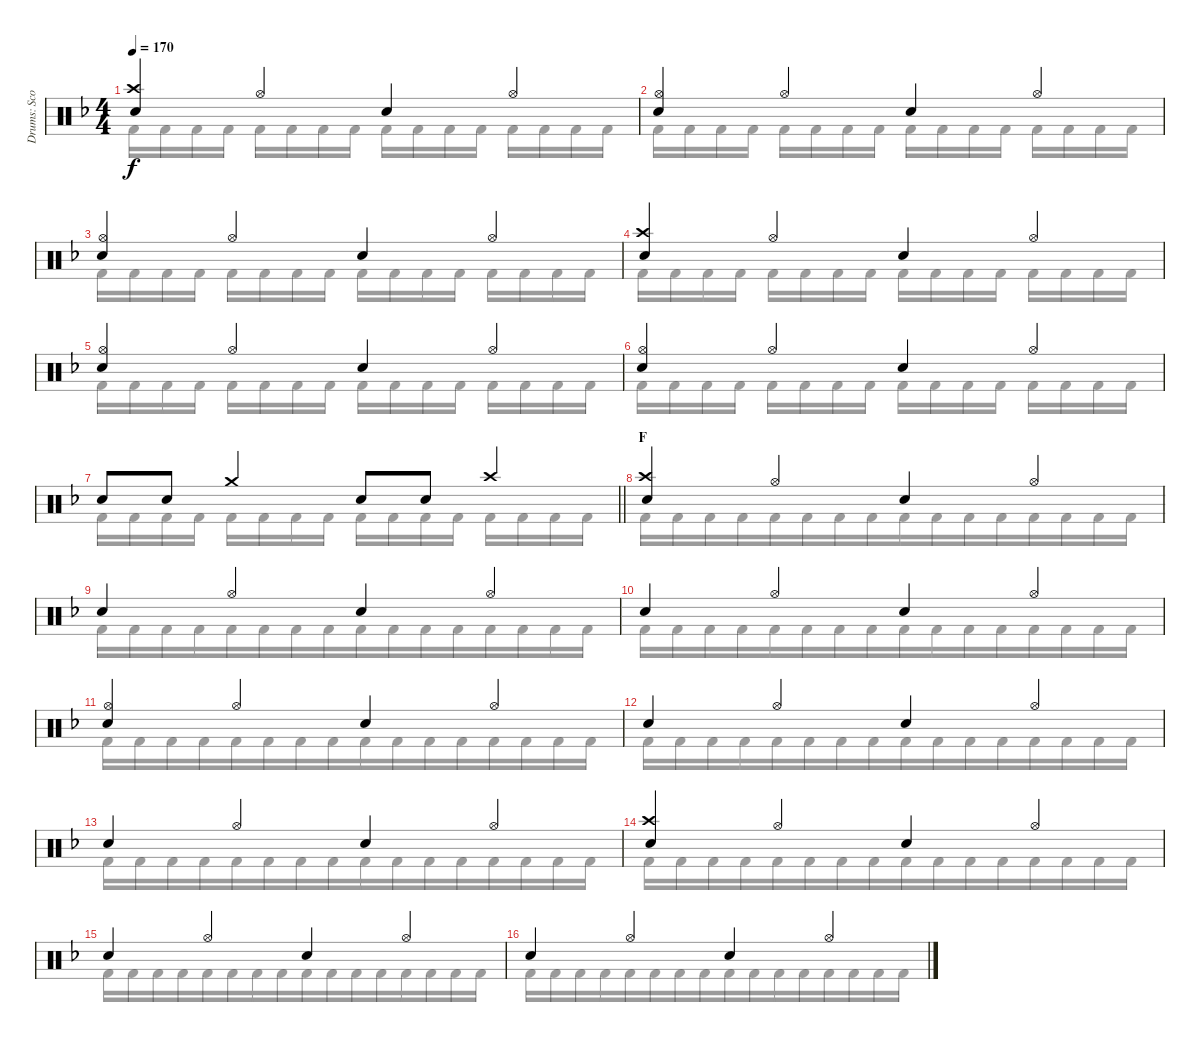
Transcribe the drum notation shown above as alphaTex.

\track ("Drums: Scott" "Drums: Sco") {instrument percussion}
\staff {score}
\articulation defaults
\voice
\ts (4 4)
\tempo 170
\clef neutral
\ks f
("Crash high (hit)" "Snare (hit) 2").4{dy f} "Hi-Hat (open)".4 "Snare (hit) 2".4 "Hi-Hat (open)".4 |
("Hi-Hat (open)" "Snare (hit) 2").4 "Hi-Hat (open)".4 "Snare (hit) 2".4 "Hi-Hat (open)".4 |
("Hi-Hat (open)" "Snare (hit) 2").4 "Hi-Hat (open)".4 "Snare (hit) 2".4 "Hi-Hat (open)".4 |
("Crash high (hit)" "Snare (hit) 2").4 "Hi-Hat (open)".4 "Snare (hit) 2".4 "Hi-Hat (open)".4 |
("Hi-Hat (open)" "Snare (hit) 2").4 "Hi-Hat (open)".4 "Snare (hit) 2".4 "Hi-Hat (open)".4 |
("Hi-Hat (open)" "Snare (hit) 2").4 "Hi-Hat (open)".4 "Snare (hit) 2".4 "Hi-Hat (open)".4 |
\barLineRight lightlight "Snare (hit) 2".8 "Snare (hit) 2".8 "Crash medium (hit)".4 "Snare (hit) 2".8 "Snare (hit) 2".8 "Crash high (hit)".4
|
\section ("" "F")
("Crash high (hit)" "Snare (hit) 2").4 "Hi-Hat (open)".4 "Snare (hit) 2".4 "Hi-Hat (open)".4 |
"Snare (hit) 2".4 "Hi-Hat (open)".4 "Snare (hit) 2".4 "Hi-Hat (open)".4 |
"Snare (hit) 2".4 "Hi-Hat (open)".4 "Snare (hit) 2".4 "Hi-Hat (open)".4 |
("Hi-Hat (open)" "Snare (hit) 2").4 "Hi-Hat (open)".4 "Snare (hit) 2".4 "Hi-Hat (open)".4 |
"Snare (hit) 2".4 "Hi-Hat (open)".4 "Snare (hit) 2".4 "Hi-Hat (open)".4 |
"Snare (hit) 2".4 "Hi-Hat (open)".4 "Snare (hit) 2".4 "Hi-Hat (open)".4 |
("Crash high (hit)" "Snare (hit) 2").4 "Hi-Hat (open)".4 "Snare (hit) 2".4 "Hi-Hat (open)".4 |
"Snare (hit) 2".4 "Hi-Hat (open)".4 "Snare (hit) 2".4 "Hi-Hat (open)".4 |
"Snare (hit) 2".4 "Hi-Hat (open)".4 "Snare (hit) 2".4 "Hi-Hat (open)".4
\voice
\clef neutral
\ottava regular
\simile none
\ks f "Kick (hit) 2".16{dy f} "Kick (hit) 2".16{beam merge} "Kick (hit) 2".16 "Kick (hit) 2".16 "Kick (hit) 2".16 "Kick (hit) 2".16{beam merge} "Kick (hit) 2".16 "Kick (hit) 2".16 "Kick (hit) 2".16 "Kick (hit) 2".16{beam merge} "Kick (hit) 2".16 "Kick (hit) 2".16 "Kick (hit) 2".16 "Kick (hit) 2".16{beam merge} "Kick (hit) 2".16 "Kick (hit) 2".16
|
"Kick (hit) 2".16 "Kick (hit) 2".16{beam merge} "Kick (hit) 2".16 "Kick (hit) 2".16 "Kick (hit) 2".16 "Kick (hit) 2".16{beam merge} "Kick (hit) 2".16 "Kick (hit) 2".16 "Kick (hit) 2".16 "Kick (hit) 2".16{beam merge} "Kick (hit) 2".16 "Kick (hit) 2".16 "Kick (hit) 2".16 "Kick (hit) 2".16{beam merge} "Kick (hit) 2".16 "Kick (hit) 2".16 |
"Kick (hit) 2".16 "Kick (hit) 2".16{beam merge} "Kick (hit) 2".16 "Kick (hit) 2".16 "Kick (hit) 2".16 "Kick (hit) 2".16{beam merge} "Kick (hit) 2".16 "Kick (hit) 2".16 "Kick (hit) 2".16 "Kick (hit) 2".16{beam merge} "Kick (hit) 2".16 "Kick (hit) 2".16 "Kick (hit) 2".16 "Kick (hit) 2".16{beam merge} "Kick (hit) 2".16 "Kick (hit) 2".16 |
"Kick (hit) 2".16 "Kick (hit) 2".16{beam merge} "Kick (hit) 2".16 "Kick (hit) 2".16 "Kick (hit) 2".16 "Kick (hit) 2".16{beam merge} "Kick (hit) 2".16 "Kick (hit) 2".16 "Kick (hit) 2".16 "Kick (hit) 2".16{beam merge} "Kick (hit) 2".16 "Kick (hit) 2".16 "Kick (hit) 2".16 "Kick (hit) 2".16{beam merge} "Kick (hit) 2".16 "Kick (hit) 2".16 |
"Kick (hit) 2".16 "Kick (hit) 2".16{beam merge} "Kick (hit) 2".16 "Kick (hit) 2".16 "Kick (hit) 2".16 "Kick (hit) 2".16{beam merge} "Kick (hit) 2".16 "Kick (hit) 2".16 "Kick (hit) 2".16 "Kick (hit) 2".16{beam merge} "Kick (hit) 2".16 "Kick (hit) 2".16 "Kick (hit) 2".16 "Kick (hit) 2".16{beam merge} "Kick (hit) 2".16 "Kick (hit) 2".16 |
"Kick (hit) 2".16 "Kick (hit) 2".16{beam merge} "Kick (hit) 2".16 "Kick (hit) 2".16 "Kick (hit) 2".16 "Kick (hit) 2".16{beam merge} "Kick (hit) 2".16 "Kick (hit) 2".16 "Kick (hit) 2".16 "Kick (hit) 2".16{beam merge} "Kick (hit) 2".16 "Kick (hit) 2".16 "Kick (hit) 2".16 "Kick (hit) 2".16{beam merge} "Kick (hit) 2".16 "Kick (hit) 2".16 |
\barLineRight lightlight "Kick (hit) 2".16 "Kick (hit) 2".16{beam merge} "Kick (hit) 2".16 "Kick (hit) 2".16 "Kick (hit) 2".16 "Kick (hit) 2".16{beam merge} "Kick (hit) 2".16 "Kick (hit) 2".16 "Kick (hit) 2".16 "Kick (hit) 2".16{beam merge} "Kick (hit) 2".16 "Kick (hit) 2".16 "Kick (hit) 2".16 "Kick (hit) 2".16{beam merge} "Kick (hit) 2".16 "Kick (hit) 2".16
|
"Kick (hit) 2".16{beam merge} "Kick (hit) 2".16{beam merge} "Kick (hit) 2".16{beam merge} "Kick (hit) 2".16{beam merge} "Kick (hit) 2".16{beam merge} "Kick (hit) 2".16{beam merge} "Kick (hit) 2".16{beam merge} "Kick (hit) 2".16{beam merge} "Kick (hit) 2".16{beam merge} "Kick (hit) 2".16{beam merge} "Kick (hit) 2".16{beam merge} "Kick (hit) 2".16{beam merge} "Kick (hit) 2".16{beam merge} "Kick (hit) 2".16{beam merge} "Kick (hit) 2".16{beam merge} "Kick (hit) 2".16 |
"Kick (hit) 2".16{beam merge} "Kick (hit) 2".16{beam merge} "Kick (hit) 2".16{beam merge} "Kick (hit) 2".16{beam merge} "Kick (hit) 2".16{beam merge} "Kick (hit) 2".16{beam merge} "Kick (hit) 2".16{beam merge} "Kick (hit) 2".16{beam merge} "Kick (hit) 2".16{beam merge} "Kick (hit) 2".16{beam merge} "Kick (hit) 2".16{beam merge} "Kick (hit) 2".16{beam merge} "Kick (hit) 2".16{beam merge} "Kick (hit) 2".16{beam merge} "Kick (hit) 2".16{beam merge} "Kick (hit) 2".16 |
"Kick (hit) 2".16{beam merge} "Kick (hit) 2".16{beam merge} "Kick (hit) 2".16{beam merge} "Kick (hit) 2".16{beam merge} "Kick (hit) 2".16{beam merge} "Kick (hit) 2".16{beam merge} "Kick (hit) 2".16{beam merge} "Kick (hit) 2".16{beam merge} "Kick (hit) 2".16{beam merge} "Kick (hit) 2".16{beam merge} "Kick (hit) 2".16{beam merge} "Kick (hit) 2".16{beam merge} "Kick (hit) 2".16{beam merge} "Kick (hit) 2".16{beam merge} "Kick (hit) 2".16{beam merge} "Kick (hit) 2".16 |
"Kick (hit) 2".16{beam merge} "Kick (hit) 2".16{beam merge} "Kick (hit) 2".16{beam merge} "Kick (hit) 2".16{beam merge} "Kick (hit) 2".16{beam merge} "Kick (hit) 2".16{beam merge} "Kick (hit) 2".16{beam merge} "Kick (hit) 2".16{beam merge} "Kick (hit) 2".16{beam merge} "Kick (hit) 2".16{beam merge} "Kick (hit) 2".16{beam merge} "Kick (hit) 2".16{beam merge} "Kick (hit) 2".16{beam merge} "Kick (hit) 2".16{beam merge} "Kick (hit) 2".16{beam merge} "Kick (hit) 2".16 |
"Kick (hit) 2".16{beam merge} "Kick (hit) 2".16{beam merge} "Kick (hit) 2".16{beam merge} "Kick (hit) 2".16{beam merge} "Kick (hit) 2".16{beam merge} "Kick (hit) 2".16{beam merge} "Kick (hit) 2".16{beam merge} "Kick (hit) 2".16{beam merge} "Kick (hit) 2".16{beam merge} "Kick (hit) 2".16{beam merge} "Kick (hit) 2".16{beam merge} "Kick (hit) 2".16{beam merge} "Kick (hit) 2".16{beam merge} "Kick (hit) 2".16{beam merge} "Kick (hit) 2".16{beam merge} "Kick (hit) 2".16 |
"Kick (hit) 2".16{beam merge} "Kick (hit) 2".16{beam merge} "Kick (hit) 2".16{beam merge} "Kick (hit) 2".16{beam merge} "Kick (hit) 2".16{beam merge} "Kick (hit) 2".16{beam merge} "Kick (hit) 2".16{beam merge} "Kick (hit) 2".16{beam merge} "Kick (hit) 2".16{beam merge} "Kick (hit) 2".16{beam merge} "Kick (hit) 2".16{beam merge} "Kick (hit) 2".16{beam merge} "Kick (hit) 2".16{beam merge} "Kick (hit) 2".16{beam merge} "Kick (hit) 2".16{beam merge} "Kick (hit) 2".16 |
"Kick (hit) 2".16{beam merge} "Kick (hit) 2".16{beam merge} "Kick (hit) 2".16{beam merge} "Kick (hit) 2".16{beam merge} "Kick (hit) 2".16{beam merge} "Kick (hit) 2".16{beam merge} "Kick (hit) 2".16{beam merge} "Kick (hit) 2".16{beam merge} "Kick (hit) 2".16{beam merge} "Kick (hit) 2".16{beam merge} "Kick (hit) 2".16{beam merge} "Kick (hit) 2".16{beam merge} "Kick (hit) 2".16{beam merge} "Kick (hit) 2".16{beam merge} "Kick (hit) 2".16{beam merge} "Kick (hit) 2".16 |
"Kick (hit) 2".16{beam merge} "Kick (hit) 2".16{beam merge} "Kick (hit) 2".16{beam merge} "Kick (hit) 2".16{beam merge} "Kick (hit) 2".16{beam merge} "Kick (hit) 2".16{beam merge} "Kick (hit) 2".16{beam merge} "Kick (hit) 2".16{beam merge} "Kick (hit) 2".16{beam merge} "Kick (hit) 2".16{beam merge} "Kick (hit) 2".16{beam merge} "Kick (hit) 2".16{beam merge} "Kick (hit) 2".16{beam merge} "Kick (hit) 2".16{beam merge} "Kick (hit) 2".16{beam merge} "Kick (hit) 2".16 |
"Kick (hit) 2".16{beam merge} "Kick (hit) 2".16{beam merge} "Kick (hit) 2".16{beam merge} "Kick (hit) 2".16{beam merge} "Kick (hit) 2".16{beam merge} "Kick (hit) 2".16{beam merge} "Kick (hit) 2".16{beam merge} "Kick (hit) 2".16{beam merge} "Kick (hit) 2".16{beam merge} "Kick (hit) 2".16{beam merge} "Kick (hit) 2".16{beam merge} "Kick (hit) 2".16{beam merge} "Kick (hit) 2".16{beam merge} "Kick (hit) 2".16{beam merge} "Kick (hit) 2".16{beam merge} "Kick (hit) 2".16
